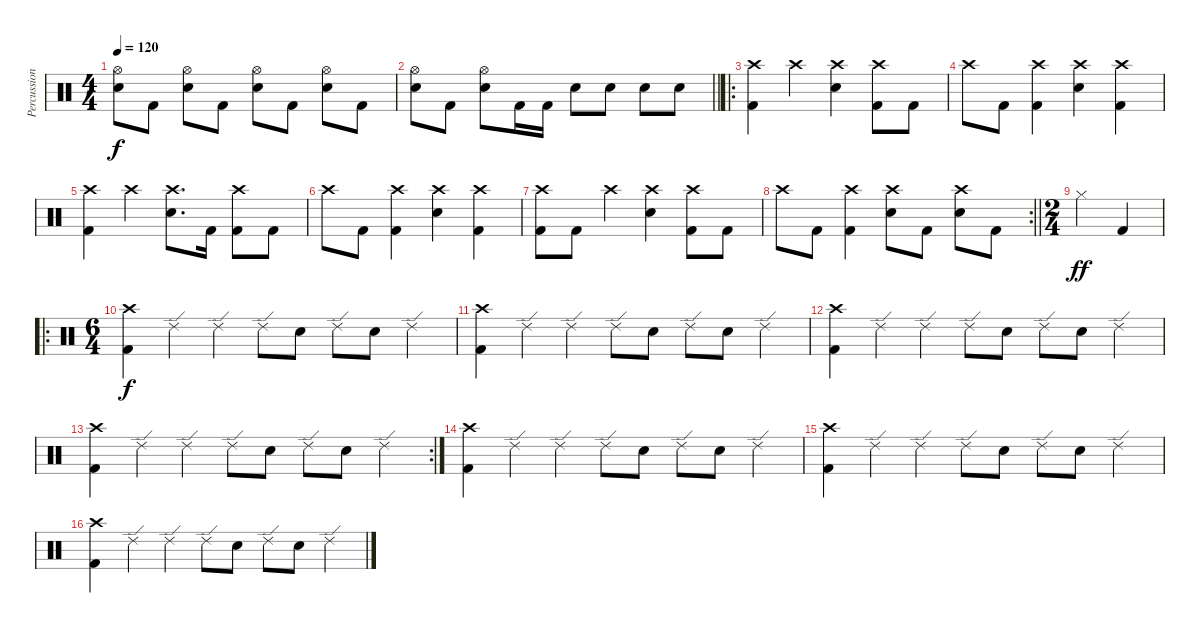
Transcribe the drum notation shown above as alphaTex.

\track ("Percussions" "Percussion") {instrument percussion}
\staff {score}
\articulation defaults
\ts (4 4)
\tempo 120
\clef neutral
\ks c
("Hi-Hat (open)" "Electric Snare (hit)").8{dy f} "Kick (hit) 2".8 ("Hi-Hat (open)" "Electric Snare (hit)").8 "Kick (hit) 2".8 ("Hi-Hat (open)" "Electric Snare (hit)").8 "Kick (hit) 2".8 ("Hi-Hat (open)" "Electric Snare (hit)").8 "Kick (hit) 2".8 |
\barLineRight lightlight
("Hi-Hat (open)" "Electric Snare (hit)").8 "Kick (hit) 2".8 ("Hi-Hat (open)" "Electric Snare (hit)").8 "Kick (hit) 2".16 "Kick (hit) 2".16 "Electric Snare (hit)".8 "Electric Snare (hit)".8 "Electric Snare (hit)".8 "Electric Snare (hit)".8 |
\ro
\section ("" "")
("Crash high (hit)" "Kick (hit) 2").4 "Crash high (hit)".4 ("Crash high (hit)" "Electric Snare (hit)").4 ("Crash high (hit)" "Kick (hit) 2").8 "Kick (hit) 2".8 |
"Crash high (hit)".8 "Kick (hit) 2".8 ("Crash high (hit)" "Kick (hit) 2").4 ("Crash high (hit)" "Electric Snare (hit)").4 ("Crash high (hit)" "Kick (hit) 2").4 |
("Crash high (hit)" "Kick (hit) 2").4 "Crash high (hit)".4 ("Crash high (hit)" "Electric Snare (hit)").8{d} "Kick (hit) 2".16 ("Crash high (hit)" "Kick (hit) 2").8 "Kick (hit) 2".8 |
"Crash high (hit)".8 "Kick (hit) 2".8 ("Crash high (hit)" "Kick (hit) 2").4 ("Crash high (hit)" "Electric Snare (hit)").4 ("Crash high (hit)" "Kick (hit) 2").4 |
("Crash high (hit)" "Kick (hit) 2").8 "Kick (hit) 2".8 "Crash high (hit)".4 ("Crash high (hit)" "Electric Snare (hit)").4 ("Crash high (hit)" "Kick (hit) 2").8 "Kick (hit) 2".8 |
\rc 2
\barLineRight lightlight "Crash high (hit)".8 "Kick (hit) 2".8
("Crash high (hit)" "Kick (hit) 2").4 ("Crash high (hit)" "Electric Snare (hit)").8 "Kick (hit) 2".8 ("Crash high (hit)" "Electric Snare (hit)").8 "Kick (hit) 2".8 |
\ts (2 4)
\section ("" "")
"Hi-Hat (closed)".4{dy ff} "Kick (hit) 2".4 |
\ro
\ts (6 4)
("Crash high (hit)" "Kick (hit) 2").4{dy f} "Ride (edge) 2".4 "Ride (edge) 2".4 "Ride (edge) 2".8 "Electric Snare (hit)".8 "Ride (edge) 2".8 "Electric Snare (hit)".8 "Ride (edge) 2".4 |
("Crash high (hit)" "Kick (hit) 2").4 "Ride (edge) 2".4 "Ride (edge) 2".4 "Ride (edge) 2".8 "Electric Snare (hit)".8 "Ride (edge) 2".8 "Electric Snare (hit)".8 "Ride (edge) 2".4 |
("Crash high (hit)" "Kick (hit) 2").4 "Ride (edge) 2".4 "Ride (edge) 2".4 "Ride (edge) 2".8 "Electric Snare (hit)".8 "Ride (edge) 2".8 "Electric Snare (hit)".8 "Ride (edge) 2".4 |
\rc 2
("Crash high (hit)" "Kick (hit) 2").4 "Ride (edge) 2".4 "Ride (edge) 2".4 "Ride (edge) 2".8 "Electric Snare (hit)".8 "Ride (edge) 2".8 "Electric Snare (hit)".8 "Ride (edge) 2".4 |
("Crash high (hit)" "Kick (hit) 2").4 "Ride (edge) 2".4 "Ride (edge) 2".4 "Ride (edge) 2".8 "Electric Snare (hit)".8 "Ride (edge) 2".8 "Electric Snare (hit)".8 "Ride (edge) 2".4 |
("Crash high (hit)" "Kick (hit) 2").4 "Ride (edge) 2".4 "Ride (edge) 2".4 "Ride (edge) 2".8 "Electric Snare (hit)".8 "Ride (edge) 2".8 "Electric Snare (hit)".8 "Ride (edge) 2".4 |
("Crash high (hit)" "Kick (hit) 2").4 "Ride (edge) 2".4 "Ride (edge) 2".4 "Ride (edge) 2".8 "Electric Snare (hit)".8 "Ride (edge) 2".8 "Electric Snare (hit)".8 "Ride (edge) 2".4
